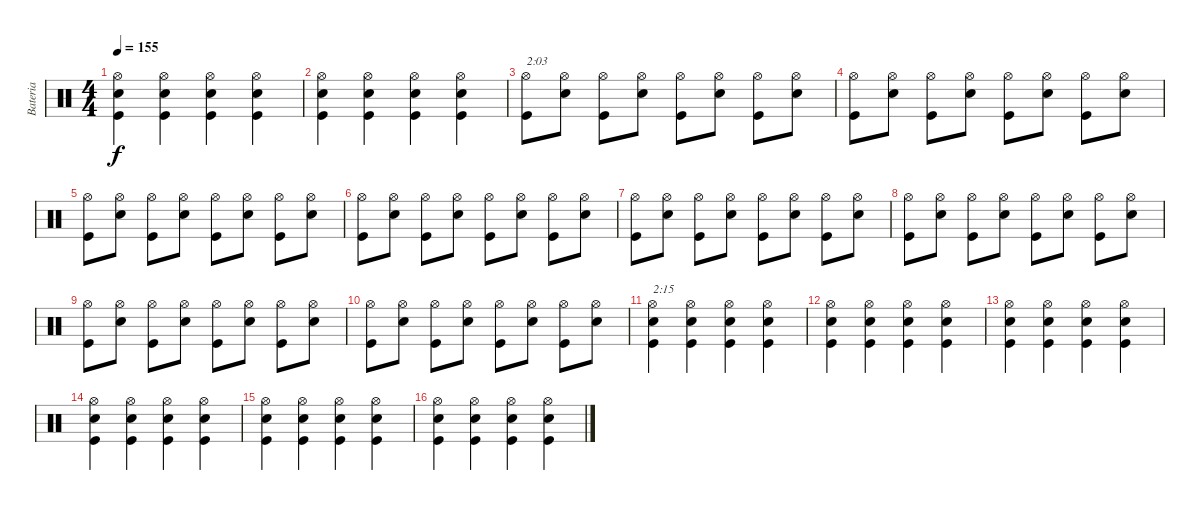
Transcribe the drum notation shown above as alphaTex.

\track ("Bateria" "Bateria") {instrument percussion}
\staff {score}
\articulation defaults
\ts (4 4)
\tempo 155
\clef neutral
\ks c
("Kick (hit)" "Snare (hit) 2" "Hi-Hat (open)").4{dy f} ("Kick (hit)" "Snare (hit) 2" "Hi-Hat (open)").4 ("Kick (hit)" "Snare (hit) 2" "Hi-Hat (open)").4 ("Kick (hit)" "Snare (hit) 2" "Hi-Hat (open)").4 |
("Kick (hit)" "Snare (hit) 2" "Hi-Hat (open)").4 ("Kick (hit)" "Snare (hit) 2" "Hi-Hat (open)").4 ("Kick (hit)" "Snare (hit) 2" "Hi-Hat (open)").4 ("Kick (hit)" "Snare (hit) 2" "Hi-Hat (open)").4 |
("Kick (hit)" "Hi-Hat (open)").8{txt "2:03"} ("Snare (hit) 2" "Hi-Hat (open)").8 ("Kick (hit)" "Hi-Hat (open)").8 ("Snare (hit) 2" "Hi-Hat (open)").8 ("Kick (hit)" "Hi-Hat (open)").8 ("Snare (hit) 2" "Hi-Hat (open)").8 ("Kick (hit)" "Hi-Hat (open)").8 ("Snare (hit) 2" "Hi-Hat (open)").8 |
("Kick (hit)" "Hi-Hat (open)").8 ("Snare (hit) 2" "Hi-Hat (open)").8 ("Kick (hit)" "Hi-Hat (open)").8 ("Snare (hit) 2" "Hi-Hat (open)").8 ("Kick (hit)" "Hi-Hat (open)").8 ("Snare (hit) 2" "Hi-Hat (open)").8 ("Kick (hit)" "Hi-Hat (open)").8 ("Snare (hit) 2" "Hi-Hat (open)").8 |
("Kick (hit)" "Hi-Hat (open)").8 ("Snare (hit) 2" "Hi-Hat (open)").8 ("Kick (hit)" "Hi-Hat (open)").8 ("Snare (hit) 2" "Hi-Hat (open)").8 ("Kick (hit)" "Hi-Hat (open)").8 ("Snare (hit) 2" "Hi-Hat (open)").8 ("Kick (hit)" "Hi-Hat (open)").8 ("Snare (hit) 2" "Hi-Hat (open)").8 |
("Kick (hit)" "Hi-Hat (open)").8 ("Snare (hit) 2" "Hi-Hat (open)").8 ("Kick (hit)" "Hi-Hat (open)").8 ("Snare (hit) 2" "Hi-Hat (open)").8 ("Kick (hit)" "Hi-Hat (open)").8 ("Snare (hit) 2" "Hi-Hat (open)").8 ("Kick (hit)" "Hi-Hat (open)").8 ("Snare (hit) 2" "Hi-Hat (open)").8 |
("Kick (hit)" "Hi-Hat (open)").8 ("Snare (hit) 2" "Hi-Hat (open)").8 ("Kick (hit)" "Hi-Hat (open)").8 ("Snare (hit) 2" "Hi-Hat (open)").8 ("Kick (hit)" "Hi-Hat (open)").8 ("Snare (hit) 2" "Hi-Hat (open)").8 ("Kick (hit)" "Hi-Hat (open)").8 ("Snare (hit) 2" "Hi-Hat (open)").8 |
("Kick (hit)" "Hi-Hat (open)").8 ("Snare (hit) 2" "Hi-Hat (open)").8 ("Kick (hit)" "Hi-Hat (open)").8 ("Snare (hit) 2" "Hi-Hat (open)").8 ("Kick (hit)" "Hi-Hat (open)").8 ("Snare (hit) 2" "Hi-Hat (open)").8 ("Kick (hit)" "Hi-Hat (open)").8 ("Snare (hit) 2" "Hi-Hat (open)").8 |
("Kick (hit)" "Hi-Hat (open)").8 ("Snare (hit) 2" "Hi-Hat (open)").8 ("Kick (hit)" "Hi-Hat (open)").8 ("Snare (hit) 2" "Hi-Hat (open)").8 ("Kick (hit)" "Hi-Hat (open)").8 ("Snare (hit) 2" "Hi-Hat (open)").8 ("Kick (hit)" "Hi-Hat (open)").8 ("Snare (hit) 2" "Hi-Hat (open)").8 |
("Kick (hit)" "Hi-Hat (open)").8 ("Snare (hit) 2" "Hi-Hat (open)").8 ("Kick (hit)" "Hi-Hat (open)").8 ("Snare (hit) 2" "Hi-Hat (open)").8 ("Kick (hit)" "Hi-Hat (open)").8 ("Snare (hit) 2" "Hi-Hat (open)").8 ("Kick (hit)" "Hi-Hat (open)").8 ("Snare (hit) 2" "Hi-Hat (open)").8 |
("Kick (hit)" "Snare (hit) 2" "Hi-Hat (open)").4{txt "2:15"} ("Kick (hit)" "Snare (hit) 2" "Hi-Hat (open)").4 ("Kick (hit)" "Snare (hit) 2" "Hi-Hat (open)").4 ("Kick (hit)" "Snare (hit) 2" "Hi-Hat (open)").4 |
("Kick (hit)" "Snare (hit) 2" "Hi-Hat (open)").4 ("Kick (hit)" "Snare (hit) 2" "Hi-Hat (open)").4 ("Kick (hit)" "Snare (hit) 2" "Hi-Hat (open)").4 ("Kick (hit)" "Snare (hit) 2" "Hi-Hat (open)").4 |
("Kick (hit)" "Snare (hit) 2" "Hi-Hat (open)").4 ("Kick (hit)" "Snare (hit) 2" "Hi-Hat (open)").4 ("Kick (hit)" "Snare (hit) 2" "Hi-Hat (open)").4 ("Kick (hit)" "Snare (hit) 2" "Hi-Hat (open)").4 |
("Kick (hit)" "Snare (hit) 2" "Hi-Hat (open)").4 ("Kick (hit)" "Snare (hit) 2" "Hi-Hat (open)").4 ("Kick (hit)" "Snare (hit) 2" "Hi-Hat (open)").4 ("Kick (hit)" "Snare (hit) 2" "Hi-Hat (open)").4 |
("Kick (hit)" "Snare (hit) 2" "Hi-Hat (open)").4 ("Kick (hit)" "Snare (hit) 2" "Hi-Hat (open)").4 ("Kick (hit)" "Snare (hit) 2" "Hi-Hat (open)").4 ("Kick (hit)" "Snare (hit) 2" "Hi-Hat (open)").4 |
("Kick (hit)" "Snare (hit) 2" "Hi-Hat (open)").4 ("Kick (hit)" "Snare (hit) 2" "Hi-Hat (open)").4 ("Kick (hit)" "Snare (hit) 2" "Hi-Hat (open)").4 ("Kick (hit)" "Snare (hit) 2" "Hi-Hat (open)").4
